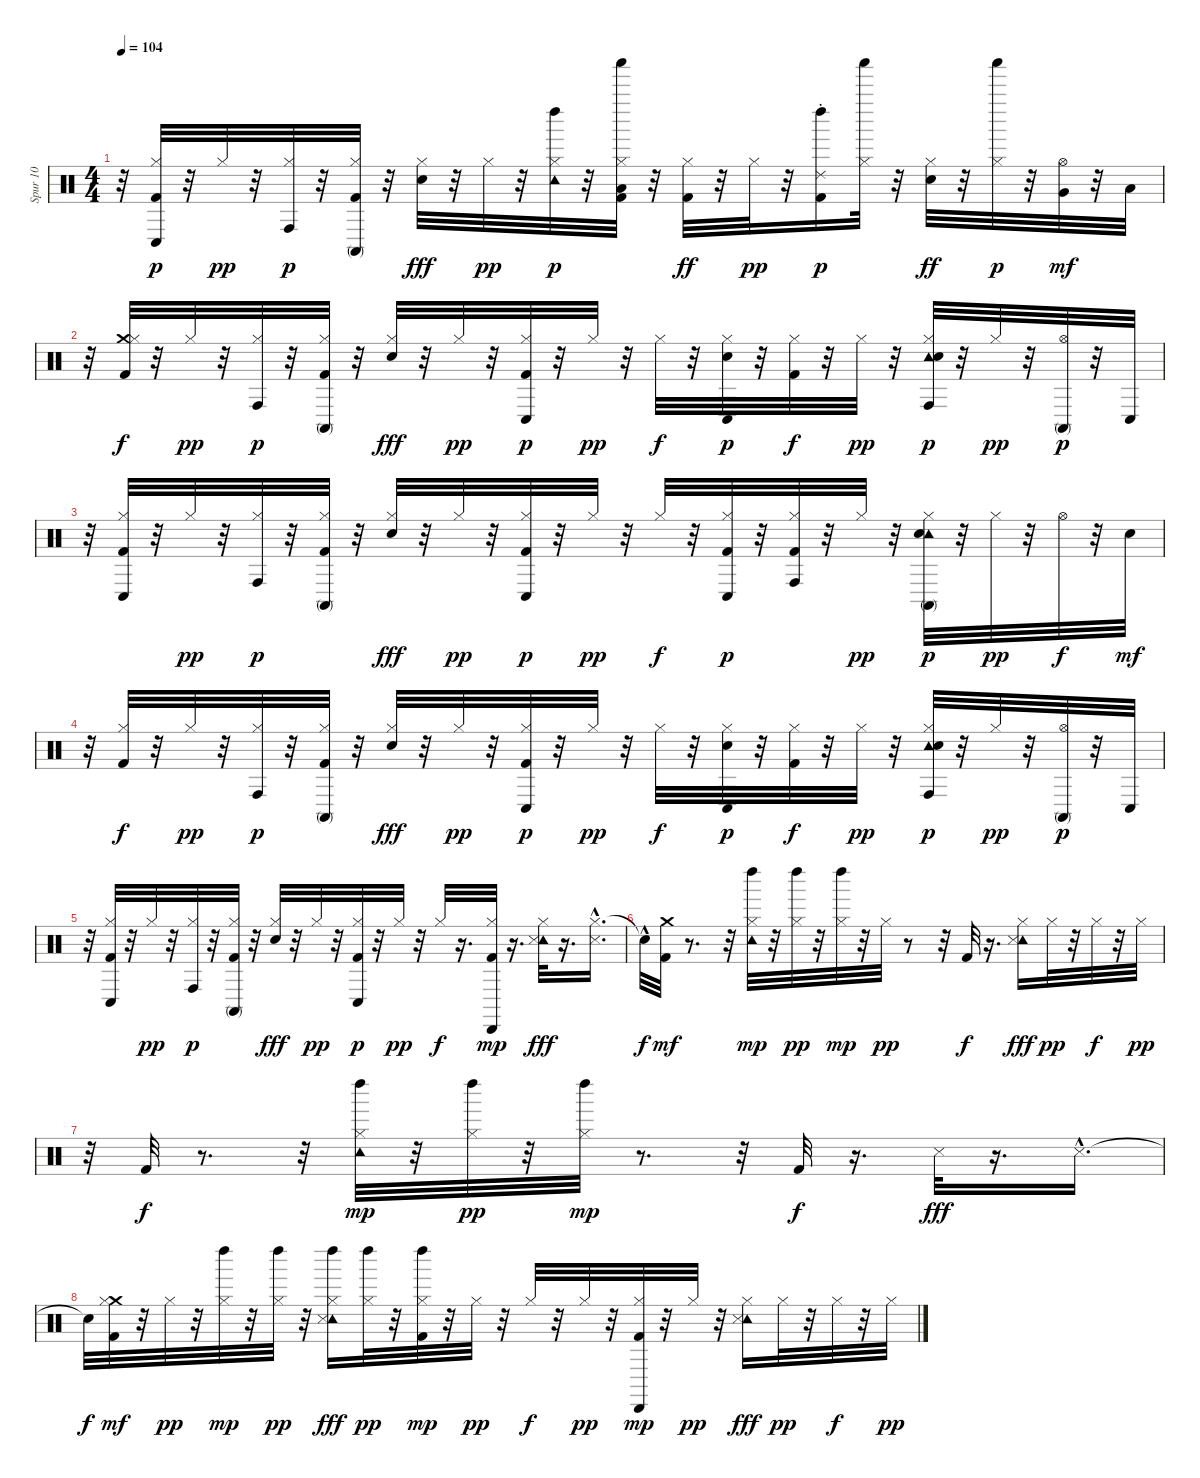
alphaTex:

\track ("Spur 10" "Spur 10") {instrument percussion}
\staff {score}
\articulation defaults
\ts (4 4)
\tempo 104
\clef neutral
\ks c
r.32{dy p} ("Hi-Hat (closed)" "Kick (hit) 2" "Conga low (hit)").32 r.32 "Hi-Hat (closed)".32{dy pp} r.32 ("Hi-Hat (closed)" "Conga high (hit)").32{dy p} r.32 ("Hi-Hat (closed)" "Kick (hit) 2" "Conga high (mute)").32 r.32 ("Hi-Hat (closed)" "Electric Snare (hit)").32{dy fff} r.32 "Hi-Hat (closed)".32{dy pp} r.32 ("Hi-Hat (closed)" "Tambourine (hit)" "Left Maraca (hit)").32{dy p} r.32 ("Low Floor Tom (hit)" "Hi-Hat (closed)" "Kick (hit) 2" "Shaker (hit)").32 r.32 ("Hi-Hat (closed)" "Kick (hit) 2").32{dy ff} r.32 "Hi-Hat (closed)".32{dy pp} r.32 ("Ride (choke) 2" "Kick (hit) 2" "Left Maraca (hit)").16{dy p} ("Hi-Hat (closed)" "Shaker (hit)").32 r.32 ("Hi-Hat (closed)" "Snare (hit) 2").32{dy ff} r.32 ("Hi-Hat (closed)" "Shaker (hit)").32{dy p} r.32 ("Very Low Tom (hit)" "Hi-Hat (open)").32{dy mf} r.32 "Low Floor Tom (hit)".32 |
r.32 ("Crash medium (hit)" "Hi-Hat (closed)" "Kick (hit) 2").32{dy f} r.32 "Hi-Hat (closed)".32{dy pp} r.32 ("Hi-Hat (closed)" "Conga high (hit)").32{dy p} r.32 ("Hi-Hat (closed)" "Kick (hit) 2" "Conga high (mute)").32 r.32 ("Hi-Hat (closed)" "Electric Snare (hit)").32{dy fff} r.32 "Hi-Hat (closed)".32{dy pp} r.32 ("Hi-Hat (closed)" "Kick (hit) 2" "Conga low (hit)").32{dy p} r.32 "Hi-Hat (closed)".32{dy pp} r.32 "Hi-Hat (closed)".32{dy f} r.32 ("Hi-Hat (closed)" "Electric Snare (hit)" "Conga low (hit)").32{dy p} r.32 ("Hi-Hat (closed)" "Kick (hit) 2").32{dy f} r.32 "Hi-Hat (closed)".32{dy pp} r.32 ("Hi-Hat (closed)" "Tambourine (hit)" "Electric Snare (hit)" "Conga high (hit)").32{dy p} r.32 "Hi-Hat (closed)".32{dy pp} r.32 ("Hi-Hat (open)" "Conga high (mute)").32{dy p} r.32 "Conga low (hit)".32 |
r.32 ("Hi-Hat (closed)" "Kick (hit) 2" "Conga low (hit)").32 r.32 "Hi-Hat (closed)".32{dy pp} r.32 ("Hi-Hat (closed)" "Conga high (hit)").32{dy p} r.32 ("Hi-Hat (closed)" "Kick (hit) 2" "Conga high (mute)").32 r.32 ("Hi-Hat (closed)" "Electric Snare (hit)").32{dy fff} r.32 "Hi-Hat (closed)".32{dy pp} r.32 ("Hi-Hat (closed)" "Kick (hit) 2" "Conga low (hit)").32{dy p} r.32 "Hi-Hat (closed)".32{dy pp} r.32 "Hi-Hat (closed)".32{dy f} r.32 ("Hi-Hat (closed)" "Kick (hit) 2" "Conga low (hit)").32{dy p} r.32 ("Hi-Hat (closed)" "Kick (hit) 2" "Conga high (hit)").32 r.32 "Hi-Hat (closed)".32{dy pp} r.32 ("Hi-Hat (closed)" "Tambourine (hit)" "Electric Snare (hit)" "Conga high (mute)").32{dy p} r.32 "Hi-Hat (closed)".32{dy pp} r.32 "Hi-Hat (open)".32{dy f} r.32 "Electric Snare (hit)".32{dy mf} |
r.32 ("Hi-Hat (closed)" "Kick (hit) 2").32{dy f} r.32 "Hi-Hat (closed)".32{dy pp} r.32 ("Hi-Hat (closed)" "Conga high (hit)").32{dy p} r.32 ("Hi-Hat (closed)" "Kick (hit) 2" "Conga high (mute)").32 r.32 ("Hi-Hat (closed)" "Electric Snare (hit)").32{dy fff} r.32 "Hi-Hat (closed)".32{dy pp} r.32 ("Hi-Hat (closed)" "Kick (hit) 2" "Conga low (hit)").32{dy p} r.32 "Hi-Hat (closed)".32{dy pp} r.32 "Hi-Hat (closed)".32{dy f} r.32 ("Hi-Hat (closed)" "Electric Snare (hit)" "Conga low (hit)").32{dy p} r.32 ("Hi-Hat (closed)" "Kick (hit) 2").32{dy f} r.32 "Hi-Hat (closed)".32{dy pp} r.32 ("Hi-Hat (closed)" "Tambourine (hit)" "Electric Snare (hit)" "Conga high (hit)").32{dy p} r.32 "Hi-Hat (closed)".32{dy pp} r.32 ("Hi-Hat (open)" "Conga high (mute)").32{dy p} r.32 "Conga low (hit)".32 |
r.32 ("Hi-Hat (closed)" "Kick (hit) 2" "Conga low (hit)").32 r.32 "Hi-Hat (closed)".32{dy pp} r.32 ("Hi-Hat (closed)" "Conga high (hit)").32{dy p} r.32 ("Hi-Hat (closed)" "Kick (hit) 2" "Conga high (mute)").32 r.32 ("Hi-Hat (closed)" "Electric Snare (hit)").32{dy fff} r.32 "Hi-Hat (closed)".32{dy pp} r.32 ("Hi-Hat (closed)" "Kick (hit) 2" "Conga low (hit)").32{dy p} r.32 "Hi-Hat (closed)".32{dy pp} r.32 "Hi-Hat (closed)".32{dy f} r.16{d} ("Hi-Hat (closed)" "Cabasa (hit)" "Kick (hit) 2").32{dy mp} r.16{d} ("Hi-Hat (closed)" "Tambourine (hit)" "Snare (side stick) 3").32{dy fff} r.16{d} ("Hi-Hat (closed)" "Snare (side stick) 3"{hac}).16{d} |
"Snare (hit)"{hac t}.32{dy f} ("Crash medium (hit)" "Kick (hit) 2").32{dy mf} r.8{d} r.32 ("Hi-Hat (closed)" "Tambourine (hit)" "Left Maraca (hit)").32{dy mp} r.32 ("Hi-Hat (closed)" "Left Maraca (hit)").32{dy pp} r.32 ("Hi-Hat (closed)" "Left Maraca (hit)").32{dy mp} r.32 "Hi-Hat (closed)".32{dy pp} r.8 r.32 "Kick (hit) 2".32{dy f} r.16{d} ("Hi-Hat (closed)" "Tambourine (hit)" "Snare (side stick) 3").16{dy fff} "Hi-Hat (closed)".32{dy pp} r.32 "Hi-Hat (closed)".32{dy f} r.32 "Hi-Hat (closed)".32{dy pp} |
r.32 "Kick (hit) 2".32{dy f} r.8{d} r.32 ("Hi-Hat (closed)" "Tambourine (hit)" "Left Maraca (hit)").32{dy mp} r.32 ("Hi-Hat (closed)" "Left Maraca (hit)").32{dy pp} r.32 ("Hi-Hat (closed)" "Left Maraca (hit)").32{dy mp} r.8{d} r.32 "Kick (hit) 2".32{dy f} r.16{d} "Snare (side stick) 3".32{dy fff} r.16{d} "Snare (side stick) 3"{hac}.16{d} |
"Snare (hit)"{t}.32{dy f} ("Crash medium (hit)" "Hi-Hat (closed)" "Kick (hit) 2").32{dy mf} r.32 "Hi-Hat (closed)".32{dy pp} r.32 ("Hi-Hat (closed)" "Left Maraca (hit)").32{dy mp} r.32 ("Hi-Hat (closed)" "Left Maraca (hit)").32{dy pp} r.32 ("Hi-Hat (closed)" "Tambourine (hit)" "Left Maraca (hit)" "Snare (side stick) 3").16{dy fff} ("Hi-Hat (closed)" "Left Maraca (hit)").32{dy pp} r.32 ("Hi-Hat (closed)" "Left Maraca (hit)" "Kick (hit) 2").32{dy mp} r.32 "Hi-Hat (closed)".32{dy pp} r.32 "Hi-Hat (closed)".32{dy f} r.32 "Hi-Hat (closed)".32{dy pp} r.32 ("Hi-Hat (closed)" "Cabasa (hit)" "Kick (hit) 2").32{dy mp} r.32 "Hi-Hat (closed)".32{dy pp} r.32 ("Hi-Hat (closed)" "Tambourine (hit)" "Snare (side stick) 3").16{dy fff} "Hi-Hat (closed)".32{dy pp} r.32 "Hi-Hat (closed)".32{dy f} r.32 "Hi-Hat (closed)".32{dy pp}
